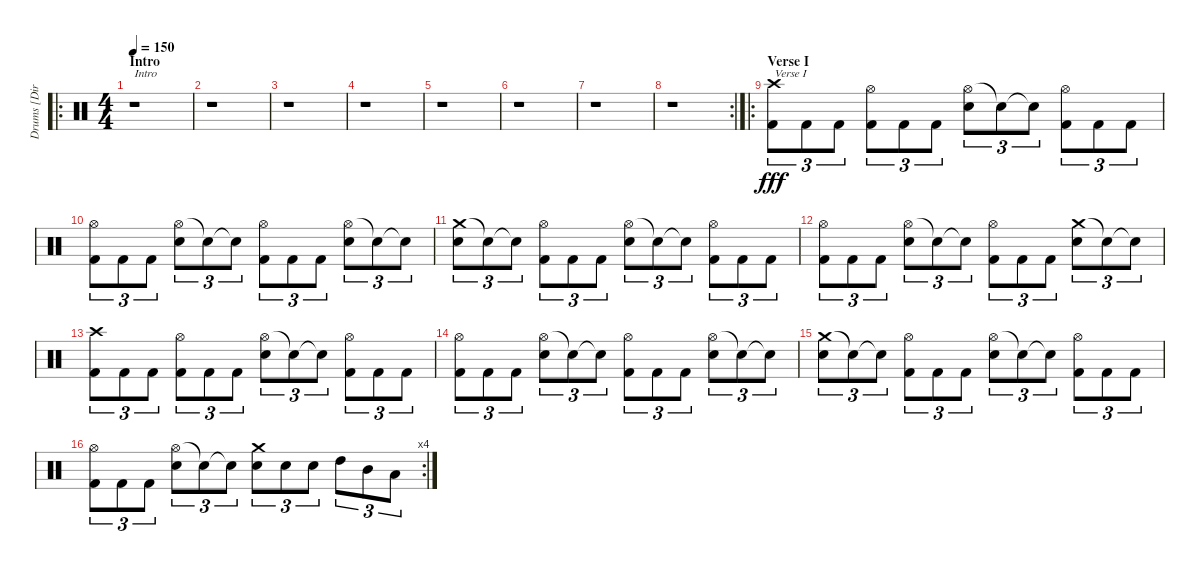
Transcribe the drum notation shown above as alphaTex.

\track ("Drums [Dirge Rep]" "Drums [Dir") {instrument percussion}
\staff {score}
\articulation defaults
\ro
\ts (4 4)
\section ("" "Intro")
\tempo 150
\clef neutral
\ks c
r.1{txt "Intro" dy fff} |
r.1 |
r.1 |
r.1 |
r.1 |
r.1 |
r.1 |
\rc 2
r.1 |
\ro
\section ("" "Verse I")
("Crash high (hit)" "Kick (hit) 2").8{tu (3 2) txt "Verse I"} "Kick (hit) 2".8{tu (3 2)} "Kick (hit) 2".8{tu (3 2)} ("Hi-Hat (open)" "Kick (hit) 2").8{tu (3 2)} "Kick (hit) 2".8{tu (3 2)} "Kick (hit) 2".8{tu (3 2)} ("Hi-Hat (open)" "Electric Snare (hit)").8{tu (3 2)} "Snare (hit)"{t}.8{tu (3 2)} "Snare (hit)"{t}.8{tu (3 2)} ("Hi-Hat (open)" "Kick (hit) 2").8{tu (3 2)} "Kick (hit) 2".8{tu (3 2)} "Kick (hit) 2".8{tu (3 2)} |
("Hi-Hat (open)" "Kick (hit) 2").8{tu (3 2)} "Kick (hit) 2".8{tu (3 2)} "Kick (hit) 2".8{tu (3 2)} ("Hi-Hat (open)" "Electric Snare (hit)").8{tu (3 2)} "Snare (hit)"{t}.8{tu (3 2)} "Snare (hit)"{t}.8{tu (3 2)} ("Hi-Hat (open)" "Kick (hit) 2").8{tu (3 2)} "Kick (hit) 2".8{tu (3 2)} "Kick (hit) 2".8{tu (3 2)} ("Hi-Hat (open)" "Electric Snare (hit)").8{tu (3 2)} "Snare (hit)"{t}.8{tu (3 2)} "Snare (hit)"{t}.8{tu (3 2)} |
("Crash medium (hit)" "Electric Snare (hit)").8{tu (3 2)} "Snare (hit)"{t}.8{tu (3 2)} "Snare (hit)"{t}.8{tu (3 2)} ("Hi-Hat (open)" "Kick (hit) 2").8{tu (3 2)} "Kick (hit) 2".8{tu (3 2)} "Kick (hit) 2".8{tu (3 2)} ("Hi-Hat (open)" "Electric Snare (hit)").8{tu (3 2)} "Snare (hit)"{t}.8{tu (3 2)} "Snare (hit)"{t}.8{tu (3 2)} ("Hi-Hat (open)" "Kick (hit) 2").8{tu (3 2)} "Kick (hit) 2".8{tu (3 2)} "Kick (hit) 2".8{tu (3 2)} |
("Hi-Hat (open)" "Kick (hit) 2").8{tu (3 2)} "Kick (hit) 2".8{tu (3 2)} "Kick (hit) 2".8{tu (3 2)} ("Hi-Hat (open)" "Electric Snare (hit)").8{tu (3 2)} "Snare (hit)"{t}.8{tu (3 2)} "Snare (hit)"{t}.8{tu (3 2)} ("Hi-Hat (open)" "Kick (hit) 2").8{tu (3 2)} "Kick (hit) 2".8{tu (3 2)} "Kick (hit) 2".8{tu (3 2)} ("Crash medium (hit)" "Electric Snare (hit)").8{tu (3 2)} "Snare (hit)"{t}.8{tu (3 2)} "Snare (hit)"{t}.8{tu (3 2)} |
("Crash high (hit)" "Kick (hit) 2").8{tu (3 2)} "Kick (hit) 2".8{tu (3 2)} "Kick (hit) 2".8{tu (3 2)} ("Hi-Hat (open)" "Kick (hit) 2").8{tu (3 2)} "Kick (hit) 2".8{tu (3 2)} "Kick (hit) 2".8{tu (3 2)} ("Hi-Hat (open)" "Electric Snare (hit)").8{tu (3 2)} "Snare (hit)"{t}.8{tu (3 2)} "Snare (hit)"{t}.8{tu (3 2)} ("Hi-Hat (open)" "Kick (hit) 2").8{tu (3 2)} "Kick (hit) 2".8{tu (3 2)} "Kick (hit) 2".8{tu (3 2)} |
("Hi-Hat (open)" "Kick (hit) 2").8{tu (3 2)} "Kick (hit) 2".8{tu (3 2)} "Kick (hit) 2".8{tu (3 2)} ("Hi-Hat (open)" "Electric Snare (hit)").8{tu (3 2)} "Snare (hit)"{t}.8{tu (3 2)} "Snare (hit)"{t}.8{tu (3 2)} ("Hi-Hat (open)" "Kick (hit) 2").8{tu (3 2)} "Kick (hit) 2".8{tu (3 2)} "Kick (hit) 2".8{tu (3 2)} ("Hi-Hat (open)" "Electric Snare (hit)").8{tu (3 2)} "Snare (hit)"{t}.8{tu (3 2)} "Snare (hit)"{t}.8{tu (3 2)} |
("Crash medium (hit)" "Electric Snare (hit)").8{tu (3 2)} "Snare (hit)"{t}.8{tu (3 2)} "Snare (hit)"{t}.8{tu (3 2)} ("Hi-Hat (open)" "Kick (hit) 2").8{tu (3 2)} "Kick (hit) 2".8{tu (3 2)} "Kick (hit) 2".8{tu (3 2)} ("Hi-Hat (open)" "Electric Snare (hit)").8{tu (3 2)} "Snare (hit)"{t}.8{tu (3 2)} "Snare (hit)"{t}.8{tu (3 2)} ("Hi-Hat (open)" "Kick (hit) 2").8{tu (3 2)} "Kick (hit) 2".8{tu (3 2)} "Kick (hit) 2".8{tu (3 2)} |
\rc 4
("Hi-Hat (open)" "Kick (hit) 2").8{tu (3 2)} "Kick (hit) 2".8{tu (3 2)} "Kick (hit) 2".8{tu (3 2)} ("Hi-Hat (open)" "Electric Snare (hit)").8{tu (3 2)} "Snare (hit)"{t}.8{tu (3 2)} "Snare (hit)"{t}.8{tu (3 2)} ("Crash medium (hit)" "Electric Snare (hit)").8{tu (3 2)} "Electric Snare (hit)".8{tu (3 2)} "Electric Snare (hit)".8{tu (3 2)} "High Tom (hit)".8{tu (3 2)} "Mid Tom (hit)".8{tu (3 2)} "Low Tom (hit)".8{tu (3 2)}
